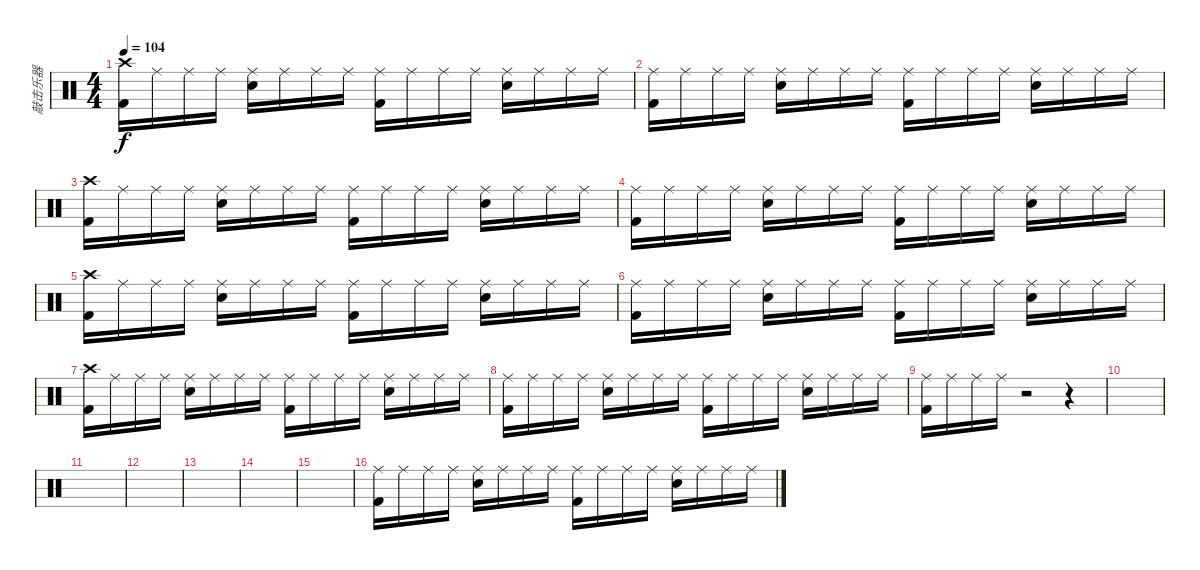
\track ("敲击乐器" "敲击乐器") {instrument percussion}
\staff {score}
\articulation defaults
\ts (4 4)
\tempo 104
\clef neutral
\ks c
("Crash high (hit)" "Kick (hit) 2").16{dy f} "Ride (middle)".16 "Ride (middle)".16 "Ride (middle)".16 ("Ride (middle)" "Electric Snare (hit)").16 "Ride (middle)".16 "Ride (middle)".16 "Ride (middle)".16 ("Ride (middle)" "Kick (hit) 2").16 "Ride (middle)".16 "Ride (middle)".16 "Ride (middle)".16 ("Ride (middle)" "Electric Snare (hit)").16 "Ride (middle)".16 "Ride (middle)".16 "Ride (middle)".16 |
("Ride (middle)" "Kick (hit) 2").16 "Ride (middle)".16 "Ride (middle)".16 "Ride (middle)".16 ("Ride (middle)" "Electric Snare (hit)").16 "Ride (middle)".16 "Ride (middle)".16 "Ride (middle)".16 ("Ride (middle)" "Kick (hit) 2").16 "Ride (middle)".16 "Ride (middle)".16 "Ride (middle)".16 ("Ride (middle)" "Electric Snare (hit)").16 "Ride (middle)".16 "Ride (middle)".16 "Ride (middle)".16 |
("Crash high (hit)" "Kick (hit) 2").16 "Ride (middle)".16 "Ride (middle)".16 "Ride (middle)".16 ("Ride (middle)" "Electric Snare (hit)").16 "Ride (middle)".16 "Ride (middle)".16 "Ride (middle)".16 ("Ride (middle)" "Kick (hit) 2").16 "Ride (middle)".16 "Ride (middle)".16 "Ride (middle)".16 ("Ride (middle)" "Electric Snare (hit)").16 "Ride (middle)".16 "Ride (middle)".16 "Ride (middle)".16 |
("Ride (middle)" "Kick (hit) 2").16 "Ride (middle)".16 "Ride (middle)".16 "Ride (middle)".16 ("Ride (middle)" "Electric Snare (hit)").16 "Ride (middle)".16 "Ride (middle)".16 "Ride (middle)".16 ("Ride (middle)" "Kick (hit) 2").16 "Ride (middle)".16 "Ride (middle)".16 "Ride (middle)".16 ("Ride (middle)" "Electric Snare (hit)").16 "Ride (middle)".16 "Ride (middle)".16 "Ride (middle)".16 |
("Crash high (hit)" "Kick (hit) 2").16{volume 13} "Ride (middle)".16 "Ride (middle)".16 "Ride (middle)".16 ("Ride (middle)" "Electric Snare (hit)").16 "Ride (middle)".16 "Ride (middle)".16 "Ride (middle)".16 ("Ride (middle)" "Kick (hit) 2").16 "Ride (middle)".16 "Ride (middle)".16 "Ride (middle)".16 ("Ride (middle)" "Electric Snare (hit)").16 "Ride (middle)".16 "Ride (middle)".16 "Ride (middle)".16 |
("Ride (middle)" "Kick (hit) 2").16{volume 13} "Ride (middle)".16 "Ride (middle)".16 "Ride (middle)".16 ("Ride (middle)" "Electric Snare (hit)").16 "Ride (middle)".16{volume 12} "Ride (middle)".16 "Ride (middle)".16 ("Ride (middle)" "Kick (hit) 2").16 "Ride (middle)".16 "Ride (middle)".16{volume 8} "Ride (middle)".16 ("Ride (middle)" "Electric Snare (hit)").16 "Ride (middle)".16 "Ride (middle)".16 "Ride (middle)".16 |
("Crash high (hit)" "Kick (hit) 2").16{volume 6} "Ride (middle)".16 "Ride (middle)".16 "Ride (middle)".16 ("Ride (middle)" "Electric Snare (hit)").16 "Ride (middle)".16 "Ride (middle)".16 "Ride (middle)".16 ("Ride (middle)" "Kick (hit) 2").16{volume 5} "Ride (middle)".16 "Ride (middle)".16 "Ride (middle)".16 ("Ride (middle)" "Electric Snare (hit)").16 "Ride (middle)".16 "Ride (middle)".16 "Ride (middle)".16 |
("Ride (middle)" "Kick (hit) 2").16 "Ride (middle)".16 "Ride (middle)".16 "Ride (middle)".16{volume 4} ("Ride (middle)" "Electric Snare (hit)").16 "Ride (middle)".16 "Ride (middle)".16 "Ride (middle)".16 ("Ride (middle)" "Kick (hit) 2").16 "Ride (middle)".16 "Ride (middle)".16 "Ride (middle)".16 ("Ride (middle)" "Electric Snare (hit)").16{volume 3} "Ride (middle)".16 "Ride (middle)".16 "Ride (middle)".16 |
("Ride (middle)" "Kick (hit) 2").16{volume 2} "Ride (middle)".16 "Ride (middle)".16{volume 0} "Ride (middle)".16 r.2 r.4 |
|
|
|
|
|
|
("Ride (middle)" "Kick (hit) 2").16{volume 2} "Ride (middle)".16 "Ride (middle)".16 "Ride (middle)".16{volume 6} ("Ride (middle)" "Electric Snare (hit)").16 "Ride (middle)".16 "Ride (middle)".16 "Ride (middle)".16 ("Ride (middle)" "Kick (hit) 2").16{volume 6} "Ride (middle)".16 "Ride (middle)".16 "Ride (middle)".16 ("Ride (middle)" "Electric Snare (hit)").16{volume 16} "Ride (middle)".16 "Ride (middle)".16 "Ride (middle)".16
